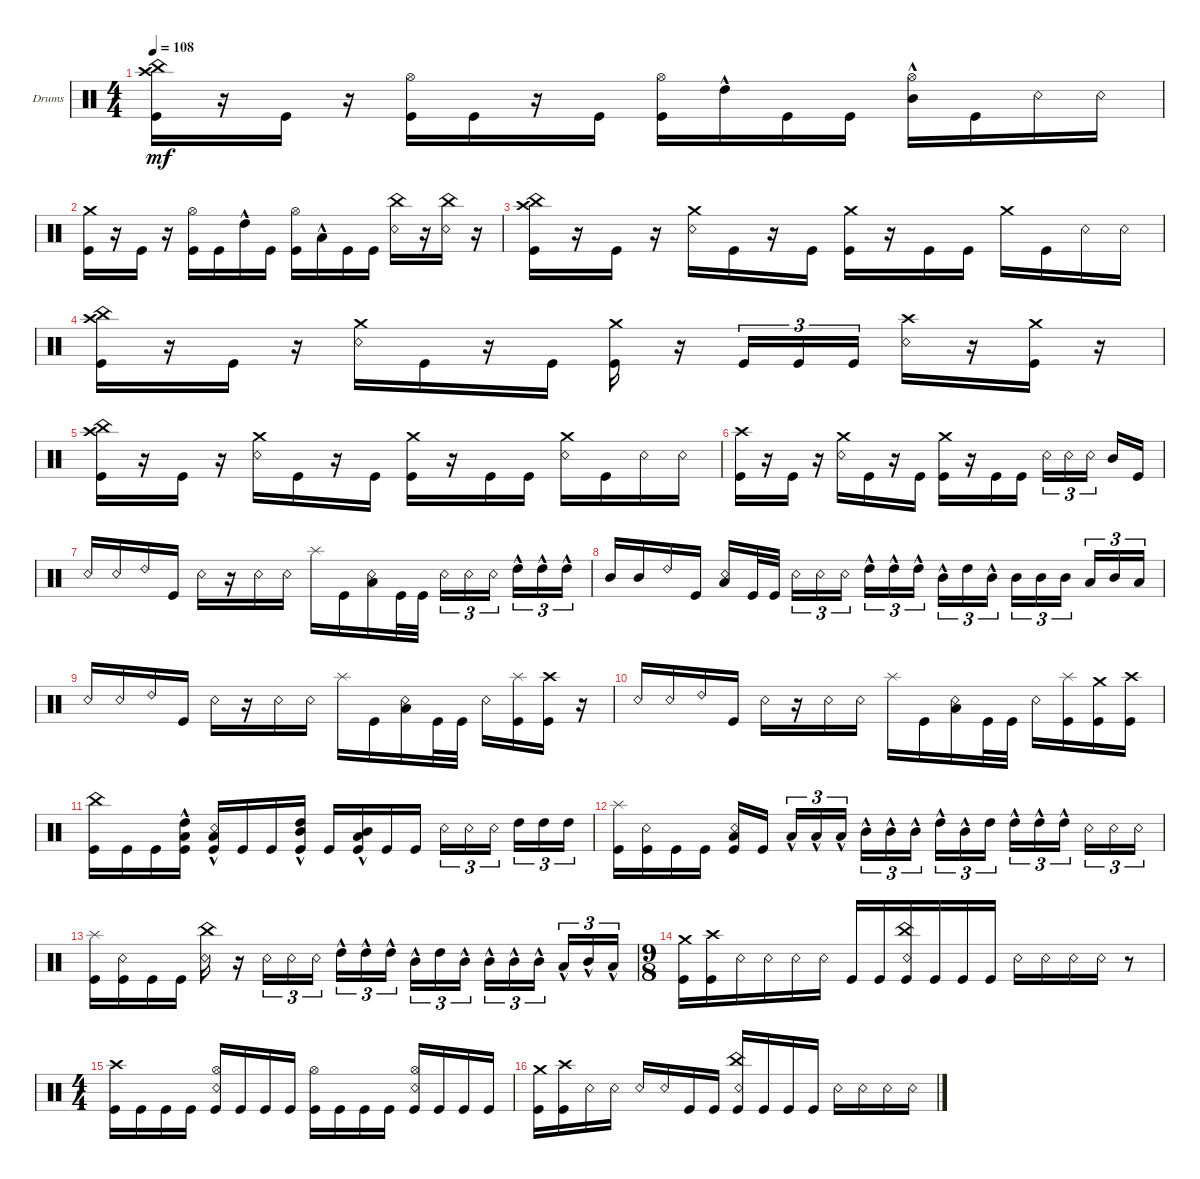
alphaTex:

\defaultSystemsLayout 4
\bracketExtendMode groupsimilarinstruments
\firstSystemTrackNameOrientation horizontal
\otherSystemsTrackNameOrientation horizontal
\track ("Drumkit" "Drums") {instrument percussion}
\staff {score}
\articulation defaults
\ts (4 4)
\tempo 108
\clef neutral
\ks c
("Kick (hit)" "China (hit)" "Crash high (hit)").16{dy mf} r.16 "Kick (hit)".16 r.16 ("Kick (hit)" "Hi-Hat (open)").16 "Kick (hit)".16 r.16 "Kick (hit)".16 ("Kick (hit)" "Hi-Hat (open)").16 "High Tom (hit)"{hac}.16 "Kick (hit)".16 "Kick (hit)".16 ("Hi-Hat (open)" "Mid Tom (hit)"{hac}).16 "Kick (hit)".16 "Snare (rim shot)".16 "Snare (rim shot)".16 |
("Kick (hit)" "Crash medium (hit)").16 r.16 "Kick (hit)".16 r.16 ("Kick (hit)" "Hi-Hat (open)").16 "Kick (hit)".16 "High Tom (hit)"{hac}.16 "Kick (hit)".16 ("Kick (hit)" "Hi-Hat (open)").16 "Low Tom (hit)"{hac}.16 "Kick (hit)".16 "Kick (hit)".16 ("Snare (rim shot)" "China (hit)").16 r.16 ("Snare (rim shot)" "China (hit)").16 r.16 |
("Kick (hit)" "China (hit)" "Crash high (hit)").16 r.16 "Kick (hit)".16 r.16 ("Snare (rim shot)" "Crash medium (hit)").16 "Kick (hit)".16 r.16 "Kick (hit)".16 ("Kick (hit)" "Crash medium (hit)").16 r.16 "Kick (hit)".16 "Kick (hit)".16 "Crash medium (hit)".16 "Kick (hit)".16 "Snare (rim shot)".16 "Snare (rim shot)".16 |
("Kick (hit)" "China (hit)" "Crash high (hit)").16 r.16 "Kick (hit)".16 r.16 ("Snare (rim shot)" "Crash medium (hit)").16 "Kick (hit)".16 r.16 "Kick (hit)".16 ("Kick (hit)" "Crash medium (hit)").16 r.16 "Kick (hit)".16{tu (3 2)} "Kick (hit)".16{tu (3 2)} "Kick (hit)".16{tu (3 2)} ("Snare (rim shot)" "Crash high (hit)").16 r.16 ("Kick (hit)" "Crash medium (hit)").16 r.16 |
("Kick (hit)" "China (hit)" "Crash high (hit)").16 r.16 "Kick (hit)".16 r.16 ("Snare (rim shot)" "Crash medium (hit)").16 "Kick (hit)".16 r.16 "Kick (hit)".16 ("Kick (hit)" "Crash medium (hit)").16 r.16 "Kick (hit)".16 "Kick (hit)".16 ("Snare (rim shot)" "Crash medium (hit)").16 "Kick (hit)".16 "Snare (rim shot)".16 "Snare (rim shot)".16 |
("Kick (hit)" "Crash high (hit)").16 r.16 "Kick (hit)".16 r.16 ("Snare (rim shot)" "Crash medium (hit)").16 "Kick (hit)".16 r.16 "Kick (hit)".16 ("Kick (hit)" "Crash medium (hit)").16 r.16 "Kick (hit)".16 "Kick (hit)".16 "Snare (rim shot)".16{tu (3 2)} "Snare (rim shot)".16{tu (3 2)} "Snare (rim shot)".16{tu (3 2)} "Mid Tom (hit)".16 "Kick (hit)".16 |
"Snare (rim shot)".16 "Snare (rim shot)".16 "Ride (bell) 2".16 "Kick (hit)".16 "Snare (rim shot)".16 r.16 "Snare (rim shot)".16 "Snare (rim shot)".16 "Splash (hit)".16 "Kick (hit)".16 ("Snare (rim shot)" "Low Tom (hit)").16 "Kick (hit)".32 "Kick (hit)".32 "Snare (rim shot)".16{tu (3 2)} "Snare (rim shot)".16{tu (3 2)} "Snare (rim shot)".16{tu (3 2)} "High Tom (hit)"{hac}.16{tu (3 2)} "High Tom (hit)"{hac}.16{tu (3 2)} "High Tom (hit)"{hac}.16{tu (3 2)} |
"Mid Tom (hit)".16 "Mid Tom (hit)".16 "Ride (bell) 2".16 "Kick (hit)".16 ("Snare (rim shot)" "Low Tom (hit)").16 "Kick (hit)".32 "Kick (hit)".32 "Snare (rim shot)".16{tu (3 2)} "Snare (rim shot)".16{tu (3 2)} "Snare (rim shot)".16{tu (3 2)} "High Tom (hit)"{hac}.16{tu (3 2)} "High Tom (hit)"{hac}.16{tu (3 2)} "High Tom (hit)"{hac}.16{tu (3 2)} "Mid Tom (hit)"{hac}.16{tu (3 2)} "High Tom (hit)".16{tu (3 2)} "Mid Tom (hit)"{hac}.16{tu (3 2)} "Mid Tom (hit)".16{tu (3 2)} "Mid Tom (hit)".16{tu (3 2)} "Mid Tom (hit)".16{tu (3 2)} "Low Tom (hit)".16{tu (3 2)} "Mid Tom (hit)".16{tu (3 2)} "Low Tom (hit)".16{tu (3 2)} |
"Snare (rim shot)".16 "Snare (rim shot)".16 "Ride (bell) 2".16 "Kick (hit)".16 "Snare (rim shot)".16 r.16 "Snare (rim shot)".16 "Snare (rim shot)".16 "Splash (hit)".16 "Kick (hit)".16 ("Snare (rim shot)" "Low Tom (hit)").16 "Kick (hit)".32 "Kick (hit)".32 "Snare (rim shot)".16 ("Splash (hit)" "Kick (hit)").16 ("Kick (hit)" "Crash high (hit)").16 r.16 |
"Snare (rim shot)".16 "Snare (rim shot)".16 "Ride (bell) 2".16 "Kick (hit)".16 "Snare (rim shot)".16 r.16 "Snare (rim shot)".16 "Snare (rim shot)".16 "Splash (hit)".16 "Kick (hit)".16 ("Snare (rim shot)" "Low Tom (hit)").16 "Kick (hit)".32 "Kick (hit)".32 "Snare (rim shot)".16 ("Splash (hit)" "Kick (hit)").16 ("Kick (hit)" "Crash medium (hit)").16 ("Kick (hit)" "Crash high (hit)").16 |
("Kick (hit)" "China (hit)").16 "Kick (hit)".16 "Kick (hit)".16 ("Kick (hit)" "High Tom (hit)"{hac} "Low Tom (hit)").16 ("Kick (hit)" "Low Tom (hit)"{hac} "Snare (rim shot)").16 "Kick (hit)".16 "Kick (hit)".16 ("Kick (hit)" "Mid Tom (hit)"{hac} "High Tom (hit)").16 "Kick (hit)".16 ("Kick (hit)" "Mid Tom (hit)"{hac} "Low Tom (hit)").16 "Kick (hit)".16 "Kick (hit)".16 "Snare (rim shot)".16{tu (3 2)} "Snare (rim shot)".16{tu (3 2)} "Snare (rim shot)".16{tu (3 2)} "High Tom (hit)".16{tu (3 2)} "High Tom (hit)".16{tu (3 2)} "High Tom (hit)".16{tu (3 2)} |
("Kick (hit)" "Splash (hit)").16 ("Kick (hit)" "Snare (rim shot)").16 "Kick (hit)".16 "Kick (hit)".16 ("Kick (hit)" "Snare (rim shot)" "Low Tom (hit)").16 "Kick (hit)".16 "Low Tom (hit)"{hac}.16{tu (3 2)} "Low Tom (hit)"{hac}.16{tu (3 2)} "Low Tom (hit)"{hac}.16{tu (3 2)} "Mid Tom (hit)"{hac}.16{tu (3 2)} "Mid Tom (hit)"{hac}.16{tu (3 2)} "Mid Tom (hit)"{hac}.16{tu (3 2)} "High Tom (hit)"{hac}.16{tu (3 2)} "Mid Tom (hit)"{hac}.16{tu (3 2)} "High Tom (hit)".16{tu (3 2)} "High Tom (hit)"{hac}.16{tu (3 2)} "High Tom (hit)"{hac}.16{tu (3 2)} "High Tom (hit)"{hac}.16{tu (3 2)} "Snare (rim shot)".16{tu (3 2)} "Snare (rim shot)".16{tu (3 2)} "Snare (rim shot)".16{tu (3 2)} |
("Splash (hit)" "Kick (hit)").16 ("Kick (hit)" "Snare (rim shot)").16 "Kick (hit)".16 "Kick (hit)".16 ("Snare (rim shot)" "China (hit)").16 r.16 "Snare (rim shot)".16{tu (3 2)} "Snare (rim shot)".16{tu (3 2)} "Snare (rim shot)".16{tu (3 2)} "High Tom (hit)"{hac}.16{tu (3 2)} "High Tom (hit)"{hac}.16{tu (3 2)} "High Tom (hit)"{hac}.16{tu (3 2)} "Mid Tom (hit)"{hac}.16{tu (3 2)} "High Tom (hit)".16{tu (3 2)} "Mid Tom (hit)"{hac}.16{tu (3 2)} "Mid Tom (hit)"{hac}.16{tu (3 2)} "Mid Tom (hit)"{hac}.16{tu (3 2)} "Mid Tom (hit)"{hac}.16{tu (3 2)} "Low Tom (hit)"{hac}.16{tu (3 2)} "Mid Tom (hit)"{hac}.16{tu (3 2)} "Low Tom (hit)"{hac}.16{tu (3 2)} |
\ts (9 8)
("Kick (hit)" "Crash medium (hit)").16 ("Kick (hit)" "Crash high (hit)").16 "Snare (rim shot)".16 "Snare (rim shot)".16 "Snare (rim shot)".16 "Snare (rim shot)".16 "Kick (hit)".16 "Kick (hit)".16 ("Kick (hit)" "Snare (rim shot)" "China (hit)").16 "Kick (hit)".16 "Kick (hit)".16 "Kick (hit)".16 "Snare (rim shot)".16 "Snare (rim shot)".16 "Snare (rim shot)".16 "Snare (rim shot)".16 r.8 |
\ts (4 4)
("Kick (hit)" "Crash high (hit)").16 "Kick (hit)".16 "Kick (hit)".16 "Kick (hit)".16 ("Kick (hit)" "Snare (rim shot)" "Hi-Hat (open)").16 "Kick (hit)".16 "Kick (hit)".16 "Kick (hit)".16 ("Kick (hit)" "Hi-Hat (open)").16 "Kick (hit)".16 "Kick (hit)".16 "Kick (hit)".16 ("Kick (hit)" "Snare (rim shot)" "Hi-Hat (open)").16 "Kick (hit)".16 "Kick (hit)".16 "Kick (hit)".16 |
("Kick (hit)" "Crash medium (hit)").16 ("Kick (hit)" "Crash high (hit)").16 "Snare (rim shot)".16 "Snare (rim shot)".16 "Snare (rim shot)".16 "Snare (rim shot)".16 "Kick (hit)".16 "Kick (hit)".16 ("Kick (hit)" "Snare (rim shot)" "China (hit)").16 "Kick (hit)".16 "Kick (hit)".16 "Kick (hit)".16 "Snare (rim shot)".16 "Snare (rim shot)".16 "Snare (rim shot)".16 "Snare (rim shot)".16
